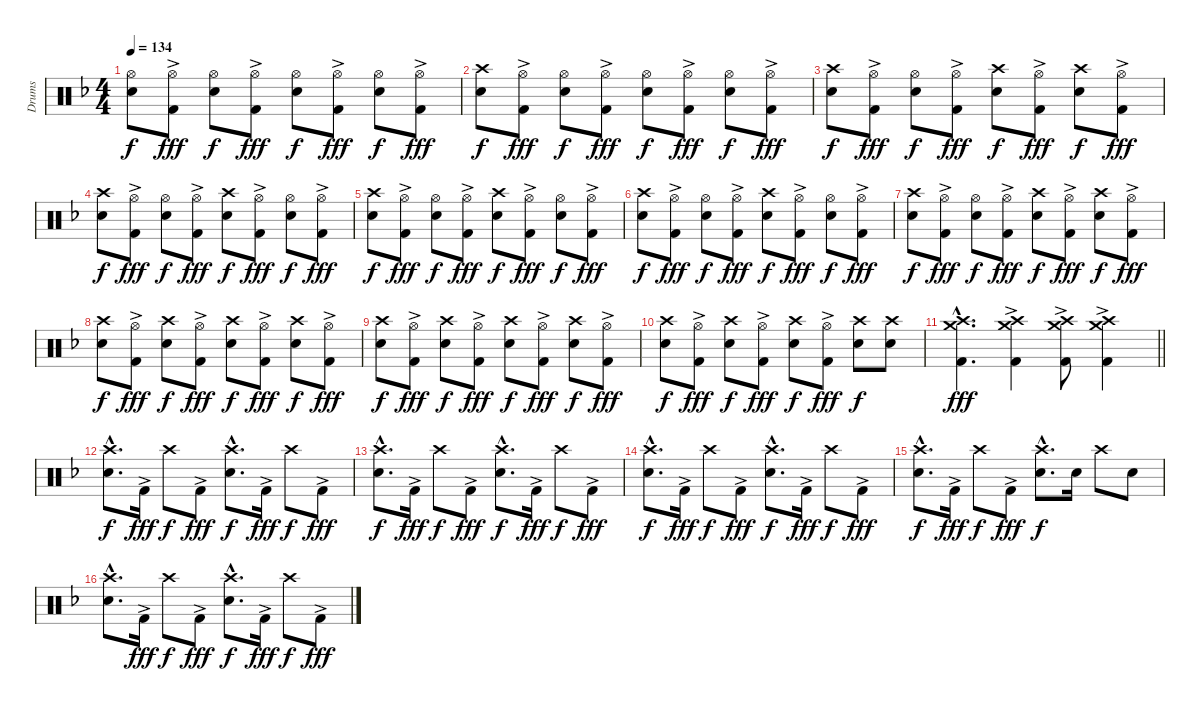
\track ("Drums" "Drums") {instrument percussion}
\staff {score}
\articulation defaults
\ts (4 4)
\tempo 134
\clef neutral
\ks dminor
("Hi-Hat (open)" "Snare (hit) 2").8{dy f} ("Hi-Hat (open)" "Kick (hit) 2"{ac}).8{dy fff} ("Hi-Hat (open)" "Snare (hit) 2").8{dy f} ("Hi-Hat (open)" "Kick (hit) 2"{ac}).8{dy fff} ("Hi-Hat (open)" "Snare (hit) 2").8{dy f} ("Hi-Hat (open)" "Kick (hit) 2"{ac}).8{dy fff} ("Hi-Hat (open)" "Snare (hit) 2").8{dy f} ("Hi-Hat (open)" "Kick (hit) 2"{ac}).8{dy fff} |
("Crash high (hit)" "Snare (hit) 2").8{dy f} ("Hi-Hat (open)" "Kick (hit) 2"{ac}).8{dy fff} ("Hi-Hat (open)" "Snare (hit) 2").8{dy f} ("Hi-Hat (open)" "Kick (hit) 2"{ac}).8{dy fff} ("Hi-Hat (open)" "Snare (hit) 2").8{dy f} ("Hi-Hat (open)" "Kick (hit) 2"{ac}).8{dy fff} ("Hi-Hat (open)" "Snare (hit) 2").8{dy f} ("Hi-Hat (open)" "Kick (hit) 2"{ac}).8{dy fff} |
("Crash high (hit)" "Snare (hit) 2").8{dy f} ("Hi-Hat (open)" "Kick (hit) 2"{ac}).8{dy fff} ("Hi-Hat (open)" "Snare (hit) 2").8{dy f} ("Hi-Hat (open)" "Kick (hit) 2"{ac}).8{dy fff} ("Crash high (hit)" "Snare (hit) 2").8{dy f} ("Hi-Hat (open)" "Kick (hit) 2"{ac}).8{dy fff} ("Crash high (hit)" "Snare (hit) 2").8{dy f} ("Hi-Hat (open)" "Kick (hit) 2"{ac}).8{dy fff} |
("Crash high (hit)" "Snare (hit) 2").8{dy f} ("Hi-Hat (open)" "Kick (hit) 2"{ac}).8{dy fff} ("Hi-Hat (open)" "Snare (hit) 2").8{dy f} ("Hi-Hat (open)" "Kick (hit) 2"{ac}).8{dy fff} ("Crash high (hit)" "Snare (hit) 2").8{dy f} ("Hi-Hat (open)" "Kick (hit) 2"{ac}).8{dy fff} ("Hi-Hat (open)" "Snare (hit) 2").8{dy f} ("Hi-Hat (open)" "Kick (hit) 2"{ac}).8{dy fff} |
("Crash high (hit)" "Snare (hit) 2").8{dy f} ("Hi-Hat (open)" "Kick (hit) 2"{ac}).8{dy fff} ("Hi-Hat (open)" "Snare (hit) 2").8{dy f} ("Hi-Hat (open)" "Kick (hit) 2"{ac}).8{dy fff} ("Crash high (hit)" "Snare (hit) 2").8{dy f} ("Hi-Hat (open)" "Kick (hit) 2"{ac}).8{dy fff} ("Hi-Hat (open)" "Snare (hit) 2").8{dy f} ("Hi-Hat (open)" "Kick (hit) 2"{ac}).8{dy fff} |
("Crash high (hit)" "Snare (hit) 2").8{dy f} ("Hi-Hat (open)" "Kick (hit) 2"{ac}).8{dy fff} ("Hi-Hat (open)" "Snare (hit) 2").8{dy f} ("Hi-Hat (open)" "Kick (hit) 2"{ac}).8{dy fff} ("Crash high (hit)" "Snare (hit) 2").8{dy f} ("Hi-Hat (open)" "Kick (hit) 2"{ac}).8{dy fff} ("Hi-Hat (open)" "Snare (hit) 2").8{dy f} ("Hi-Hat (open)" "Kick (hit) 2"{ac}).8{dy fff} |
("Crash high (hit)" "Snare (hit) 2").8{dy f} ("Hi-Hat (open)" "Kick (hit) 2"{ac}).8{dy fff} ("Hi-Hat (open)" "Snare (hit) 2").8{dy f} ("Hi-Hat (open)" "Kick (hit) 2"{ac}).8{dy fff} ("Crash high (hit)" "Snare (hit) 2").8{dy f} ("Hi-Hat (open)" "Kick (hit) 2"{ac}).8{dy fff} ("Crash high (hit)" "Snare (hit) 2").8{dy f} ("Hi-Hat (open)" "Kick (hit) 2"{ac}).8{dy fff} |
("Crash high (hit)" "Snare (hit) 2").8{dy f} ("Hi-Hat (open)" "Kick (hit) 2"{ac}).8{dy fff} ("Crash high (hit)" "Snare (hit) 2").8{dy f} ("Hi-Hat (open)" "Kick (hit) 2"{ac}).8{dy fff} ("Crash high (hit)" "Snare (hit) 2").8{dy f} ("Hi-Hat (open)" "Kick (hit) 2"{ac}).8{dy fff} ("Crash high (hit)" "Snare (hit) 2").8{dy f} ("Hi-Hat (open)" "Kick (hit) 2"{ac}).8{dy fff} |
("Crash high (hit)" "Snare (hit) 2").8{dy f} ("Hi-Hat (open)" "Kick (hit) 2"{ac}).8{dy fff} ("Crash high (hit)" "Snare (hit) 2").8{dy f} ("Hi-Hat (open)" "Kick (hit) 2"{ac}).8{dy fff} ("Crash high (hit)" "Snare (hit) 2").8{dy f} ("Hi-Hat (open)" "Kick (hit) 2"{ac}).8{dy fff} ("Crash high (hit)" "Snare (hit) 2").8{dy f} ("Hi-Hat (open)" "Kick (hit) 2"{ac}).8{dy fff} |
("Crash high (hit)" "Snare (hit) 2").8{dy f} ("Hi-Hat (open)" "Kick (hit) 2"{ac}).8{dy fff} ("Crash high (hit)" "Snare (hit) 2").8{dy f} ("Hi-Hat (open)" "Kick (hit) 2"{ac}).8{dy fff} ("Crash high (hit)" "Snare (hit) 2").8{dy f} ("Hi-Hat (open)" "Kick (hit) 2"{ac}).8{dy fff} ("Crash high (hit)" "Snare (hit) 2").8{dy f} ("Crash high (hit)" "Snare (hit) 2").8 |
\barLineRight lightlight
("Crash high (hit)"{hac} "Crash medium (hit)"{hac} "Kick (hit) 2"{hac}).4{d dy fff} ("Crash high (hit)" "Crash medium (hit)" "Kick (hit) 2"{ac}).4 ("Crash high (hit)" "Crash medium (hit)" "Kick (hit) 2"{ac}).8 ("Crash high (hit)" "Crash medium (hit)" "Kick (hit) 2"{ac}).4 |
("Crash high (hit)" "Snare (hit) 2"{hac}).8{d dy f} "Kick (hit) 2"{ac}.16{dy fff} "Crash high (hit)".8{dy f} "Kick (hit) 2"{ac}.8{dy fff} ("Crash high (hit)" "Snare (hit) 2"{hac}).8{d dy f} "Kick (hit) 2"{ac}.16{dy fff} "Crash high (hit)".8{dy f} "Kick (hit) 2"{ac}.8{dy fff} |
("Crash high (hit)" "Snare (hit) 2"{hac}).8{d dy f} "Kick (hit) 2"{ac}.16{dy fff} "Crash high (hit)".8{dy f} "Kick (hit) 2"{ac}.8{dy fff} ("Crash high (hit)" "Snare (hit) 2"{hac}).8{d dy f} "Kick (hit) 2"{ac}.16{dy fff} "Crash high (hit)".8{dy f} "Kick (hit) 2"{ac}.8{dy fff} |
("Crash high (hit)" "Snare (hit) 2"{hac}).8{d dy f} "Kick (hit) 2"{ac}.16{dy fff} "Crash high (hit)".8{dy f} "Kick (hit) 2"{ac}.8{dy fff} ("Crash high (hit)" "Snare (hit) 2"{hac}).8{d dy f} "Kick (hit) 2"{ac}.16{dy fff} "Crash high (hit)".8{dy f} "Kick (hit) 2"{ac}.8{dy fff} |
("Crash high (hit)" "Snare (hit) 2"{hac}).8{d dy f} "Kick (hit) 2"{ac}.16{dy fff} "Crash high (hit)".8{dy f} "Kick (hit) 2"{ac}.8{dy fff} ("Crash high (hit)" "Snare (hit) 2"{hac}).8{d dy f} "Snare (hit) 2".16 "Crash high (hit)".8 "Snare (hit) 2".8 |
("Crash high (hit)" "Snare (hit) 2"{hac}).8{d} "Kick (hit) 2"{ac}.16{dy fff} "Crash high (hit)".8{dy f} "Kick (hit) 2"{ac}.8{dy fff} ("Crash high (hit)" "Snare (hit) 2"{hac}).8{d dy f} "Kick (hit) 2"{ac}.16{dy fff} "Crash high (hit)".8{dy f} "Kick (hit) 2"{ac}.8{dy fff}
